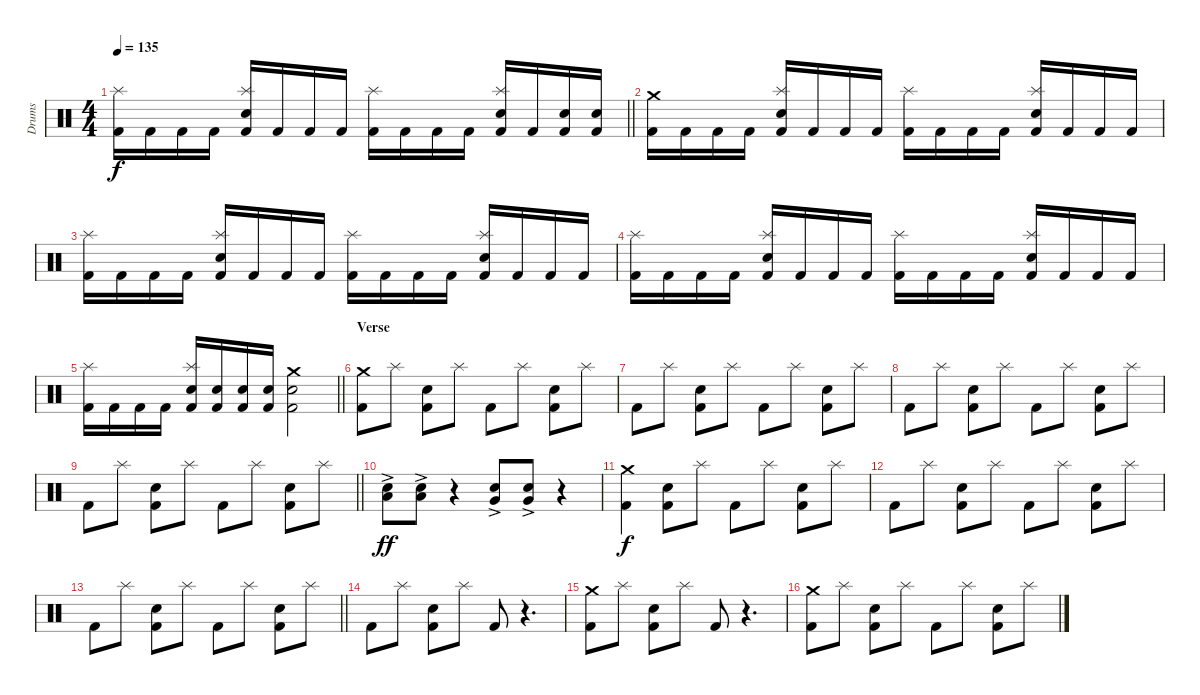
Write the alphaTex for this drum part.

\track ("Drums" "Drums") {instrument percussion}
\staff {score}
\articulation defaults
\ts (4 4)
\tempo 135
\clef neutral
\barLineRight lightlight
\ks c
("Kick (hit) 2" "Splash (hit)").16{dy f} "Kick (hit) 2".16 "Kick (hit) 2".16 "Kick (hit) 2".16 ("Kick (hit) 2" "Snare (hit) 2" "Splash (hit)").16 "Kick (hit) 2".16 "Kick (hit) 2".16 "Kick (hit) 2".16 ("Kick (hit) 2" "Splash (hit)").16 "Kick (hit) 2".16 "Kick (hit) 2".16 "Kick (hit) 2".16 ("Kick (hit) 2" "Snare (hit) 2" "Splash (hit)").16 "Kick (hit) 2".16 ("Kick (hit) 2" "Snare (hit) 2").16 ("Kick (hit) 2" "Snare (hit) 2").16 |
\section ("" "")
("Kick (hit) 2" "Crash medium (hit)").16 "Kick (hit) 2".16 "Kick (hit) 2".16 "Kick (hit) 2".16 ("Kick (hit) 2" "Snare (hit) 2" "Splash (hit)").16 "Kick (hit) 2".16 "Kick (hit) 2".16 "Kick (hit) 2".16 ("Kick (hit) 2" "Splash (hit)").16 "Kick (hit) 2".16 "Kick (hit) 2".16 "Kick (hit) 2".16 ("Kick (hit) 2" "Snare (hit) 2" "Splash (hit)").16 "Kick (hit) 2".16 "Kick (hit) 2".16 "Kick (hit) 2".16 |
("Kick (hit) 2" "Splash (hit)").16 "Kick (hit) 2".16 "Kick (hit) 2".16 "Kick (hit) 2".16 ("Kick (hit) 2" "Snare (hit) 2" "Splash (hit)").16 "Kick (hit) 2".16 "Kick (hit) 2".16 "Kick (hit) 2".16 ("Kick (hit) 2" "Splash (hit)").16 "Kick (hit) 2".16 "Kick (hit) 2".16 "Kick (hit) 2".16 ("Kick (hit) 2" "Snare (hit) 2" "Splash (hit)").16 "Kick (hit) 2".16 "Kick (hit) 2".16 "Kick (hit) 2".16 |
("Kick (hit) 2" "Splash (hit)").16 "Kick (hit) 2".16 "Kick (hit) 2".16 "Kick (hit) 2".16 ("Kick (hit) 2" "Snare (hit) 2" "Splash (hit)").16 "Kick (hit) 2".16 "Kick (hit) 2".16 "Kick (hit) 2".16 ("Kick (hit) 2" "Splash (hit)").16 "Kick (hit) 2".16 "Kick (hit) 2".16 "Kick (hit) 2".16 ("Kick (hit) 2" "Snare (hit) 2" "Splash (hit)").16 "Kick (hit) 2".16 "Kick (hit) 2".16 "Kick (hit) 2".16 |
\barLineRight lightlight
("Kick (hit) 2" "Splash (hit)").16 "Kick (hit) 2".16 "Kick (hit) 2".16 "Kick (hit) 2".16 ("Kick (hit) 2" "Snare (hit) 2" "Splash (hit)").16 ("Kick (hit) 2" "Snare (hit) 2").16 ("Kick (hit) 2" "Snare (hit) 2").16 ("Kick (hit) 2" "Snare (hit) 2").16 ("Kick (hit) 2" "Snare (hit) 2" "Crash medium (hit)").2 |
\section ("" "Verse")
("Kick (hit) 2" "Crash medium (hit)").8 "Splash (hit)".8 ("Kick (hit) 2" "Snare (hit) 2").8 "Splash (hit)".8 "Kick (hit) 2".8 "Splash (hit)".8 ("Kick (hit) 2" "Snare (hit) 2").8 "Splash (hit)".8 |
"Kick (hit) 2".8 "Splash (hit)".8 ("Kick (hit) 2" "Snare (hit) 2").8 "Splash (hit)".8 "Kick (hit) 2".8 "Splash (hit)".8 ("Kick (hit) 2" "Snare (hit) 2").8 "Splash (hit)".8 |
"Kick (hit) 2".8 "Splash (hit)".8 ("Kick (hit) 2" "Snare (hit) 2").8 "Splash (hit)".8 "Kick (hit) 2".8 "Splash (hit)".8 ("Kick (hit) 2" "Snare (hit) 2").8 "Splash (hit)".8 |
\barLineRight lightlight "Kick (hit) 2".8 "Splash (hit)".8
("Kick (hit) 2" "Snare (hit) 2").8 "Splash (hit)".8 "Kick (hit) 2".8 "Splash (hit)".8 ("Kick (hit) 2" "Snare (hit) 2").8 "Splash (hit)".8 |
\section ("" "")
("Snare (hit) 2" "Low Tom (hit)"{ac}).8{dy ff} ("Snare (hit) 2" "Low Tom (hit)"{ac}).8 r.4 ("Snare (hit) 2" "Very Low Tom (hit)"{ac}).8 ("Snare (hit) 2" "Very Low Tom (hit)"{ac}).8 r.4 |
("Kick (hit) 2" "Crash medium (hit)").4{dy f} ("Kick (hit) 2" "Snare (hit) 2").8 "Splash (hit)".8 "Kick (hit) 2".8 "Splash (hit)".8 ("Kick (hit) 2" "Snare (hit) 2").8 "Splash (hit)".8 |
"Kick (hit) 2".8 "Splash (hit)".8 ("Kick (hit) 2" "Snare (hit) 2").8 "Splash (hit)".8 "Kick (hit) 2".8 "Splash (hit)".8 ("Kick (hit) 2" "Snare (hit) 2").8 "Splash (hit)".8 |
\barLineRight lightlight "Kick (hit) 2".8 "Splash (hit)".8
("Kick (hit) 2" "Snare (hit) 2").8 "Splash (hit)".8 "Kick (hit) 2".8 "Splash (hit)".8 ("Kick (hit) 2" "Snare (hit) 2").8 "Splash (hit)".8 |
\section ("" "")
"Kick (hit) 2".8 "Splash (hit)".8 ("Kick (hit) 2" "Snare (hit) 2").8 "Splash (hit)".8 "Kick (hit) 2".8 r.4{d} |
("Kick (hit) 2" "Crash medium (hit)").8 "Splash (hit)".8 ("Kick (hit) 2" "Snare (hit) 2").8 "Splash (hit)".8 "Kick (hit) 2".8 r.4{d} |
("Kick (hit) 2" "Crash medium (hit)").8 "Splash (hit)".8 ("Kick (hit) 2" "Snare (hit) 2").8 "Splash (hit)".8 "Kick (hit) 2".8 "Splash (hit)".8 ("Kick (hit) 2" "Snare (hit) 2").8 "Splash (hit)".8
